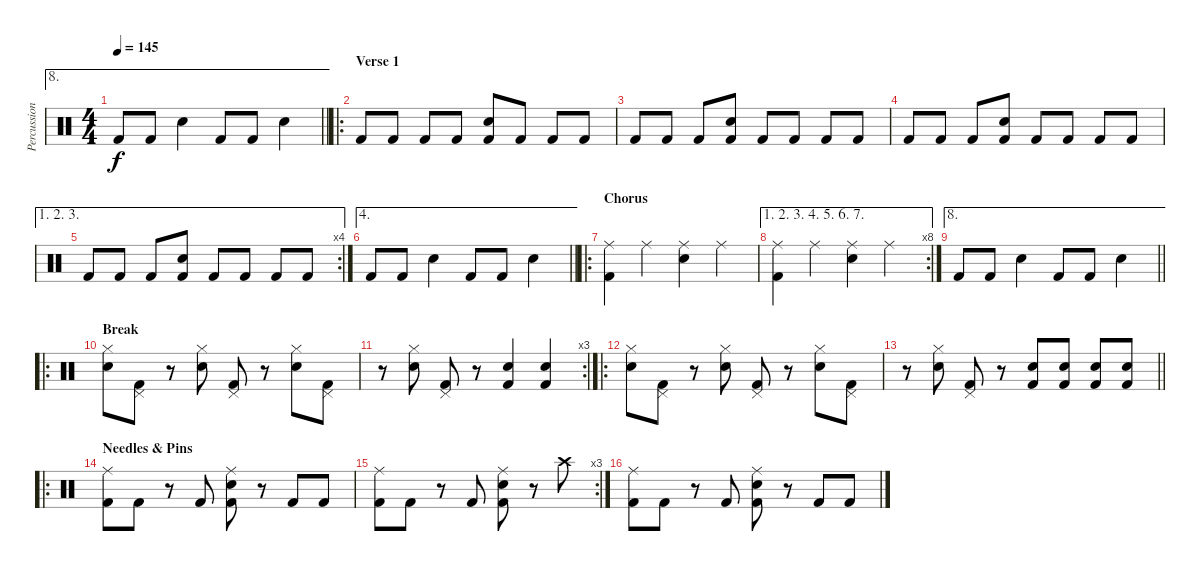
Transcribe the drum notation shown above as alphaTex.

\track ("Percussion" "Percussion") {instrument percussion}
\staff {score}
\articulation defaults
\ae 8
\ts (4 4)
\tempo 145
\clef neutral
\barLineRight lightlight
\ks c "Kick (hit) 2".8{dy f} "Kick (hit) 2".8 "Snare (hit) 2".4 "Kick (hit) 2".8 "Kick (hit) 2".8 "Snare (hit) 2".4
|
\ro
\section ("" "Verse 1")
"Kick (hit) 2".8 "Kick (hit) 2".8 "Kick (hit) 2".8 "Kick (hit) 2".8 ("Snare (hit) 2" "Kick (hit) 2").8 "Kick (hit) 2".8 "Kick (hit) 2".8 "Kick (hit) 2".8 |
"Kick (hit) 2".8 "Kick (hit) 2".8 "Kick (hit) 2".8 ("Snare (hit) 2" "Kick (hit) 2").8 "Kick (hit) 2".8 "Kick (hit) 2".8 "Kick (hit) 2".8 "Kick (hit) 2".8 |
"Kick (hit) 2".8 "Kick (hit) 2".8 "Kick (hit) 2".8 ("Snare (hit) 2" "Kick (hit) 2").8 "Kick (hit) 2".8 "Kick (hit) 2".8 "Kick (hit) 2".8 "Kick (hit) 2".8 |
\ae (1 2 3)
\rc 4 "Kick (hit) 2".8 "Kick (hit) 2".8 "Kick (hit) 2".8
("Snare (hit) 2" "Kick (hit) 2").8 "Kick (hit) 2".8 "Kick (hit) 2".8 "Kick (hit) 2".8 "Kick (hit) 2".8 |
\ae 4
\barLineRight lightlight "Kick (hit) 2".8 "Kick (hit) 2".8 "Snare (hit) 2".4 "Kick (hit) 2".8 "Kick (hit) 2".8 "Snare (hit) 2".4
|
\ro
\section ("" "Chorus")
("Kick (hit) 2" "Ride (middle)").4 "Ride (middle)".4 ("Snare (hit) 2" "Ride (middle)").4 "Ride (middle)".4 |
\ae (1 2 3 4 5 6 7)
\rc 8
("Kick (hit) 2" "Ride (middle)").4 "Ride (middle)".4 ("Snare (hit) 2" "Ride (middle)").4 "Ride (middle)".4 |
\ae 8
\barLineRight lightlight "Kick (hit) 2".8 "Kick (hit) 2".8 "Snare (hit) 2".4 "Kick (hit) 2".8 "Kick (hit) 2".8 "Snare (hit) 2".4
|
\ro
\section ("" "Break")
("Hi-Hat (closed)" "Snare (hit) 2").8 ("Pedal Hi-Hat (hit)" "Kick (hit) 2").8 r.8 ("Hi-Hat (closed)" "Snare (hit) 2").8 ("Pedal Hi-Hat (hit)" "Kick (hit) 2").8 r.8 ("Hi-Hat (closed)" "Snare (hit) 2").8 ("Pedal Hi-Hat (hit)" "Kick (hit) 2").8 |
\rc 3
r.8 ("Hi-Hat (closed)" "Snare (hit) 2").8 ("Pedal Hi-Hat (hit)" "Kick (hit) 2").8 r.8 ("Snare (hit) 2" "Kick (hit) 2").4 ("Snare (hit) 2" "Kick (hit) 2").4 |
\ro
("Hi-Hat (closed)" "Snare (hit) 2").8 ("Pedal Hi-Hat (hit)" "Kick (hit) 2").8 r.8 ("Hi-Hat (closed)" "Snare (hit) 2").8 ("Pedal Hi-Hat (hit)" "Kick (hit) 2").8 r.8 ("Hi-Hat (closed)" "Snare (hit) 2").8 ("Pedal Hi-Hat (hit)" "Kick (hit) 2").8 |
\barLineRight lightlight
r.8 ("Hi-Hat (closed)" "Snare (hit) 2").8 ("Pedal Hi-Hat (hit)" "Kick (hit) 2").8 r.8 ("Snare (hit) 2" "Kick (hit) 2").8 ("Snare (hit) 2" "Kick (hit) 2").8 ("Snare (hit) 2" "Kick (hit) 2").8 ("Snare (hit) 2" "Kick (hit) 2").8 |
\ro
\section ("" "Needles & Pins")
("Ride (middle)" "Kick (hit) 2").8 "Kick (hit) 2".8 r.8 "Kick (hit) 2".8 ("Ride (middle)" "Snare (hit) 2" "Kick (hit) 2").8 r.8 "Kick (hit) 2".8 "Kick (hit) 2".8 |
\rc 3
("Ride (middle)" "Kick (hit) 2").8 "Kick (hit) 2".8 r.8 "Kick (hit) 2".8 ("Ride (middle)" "Snare (hit) 2" "Kick (hit) 2").8 r.8 "Crash high (hit)".8 |
("Ride (middle)" "Kick (hit) 2").8 "Kick (hit) 2".8 r.8 "Kick (hit) 2".8 ("Ride (middle)" "Snare (hit) 2" "Kick (hit) 2").8 r.8 "Kick (hit) 2".8 "Kick (hit) 2".8
